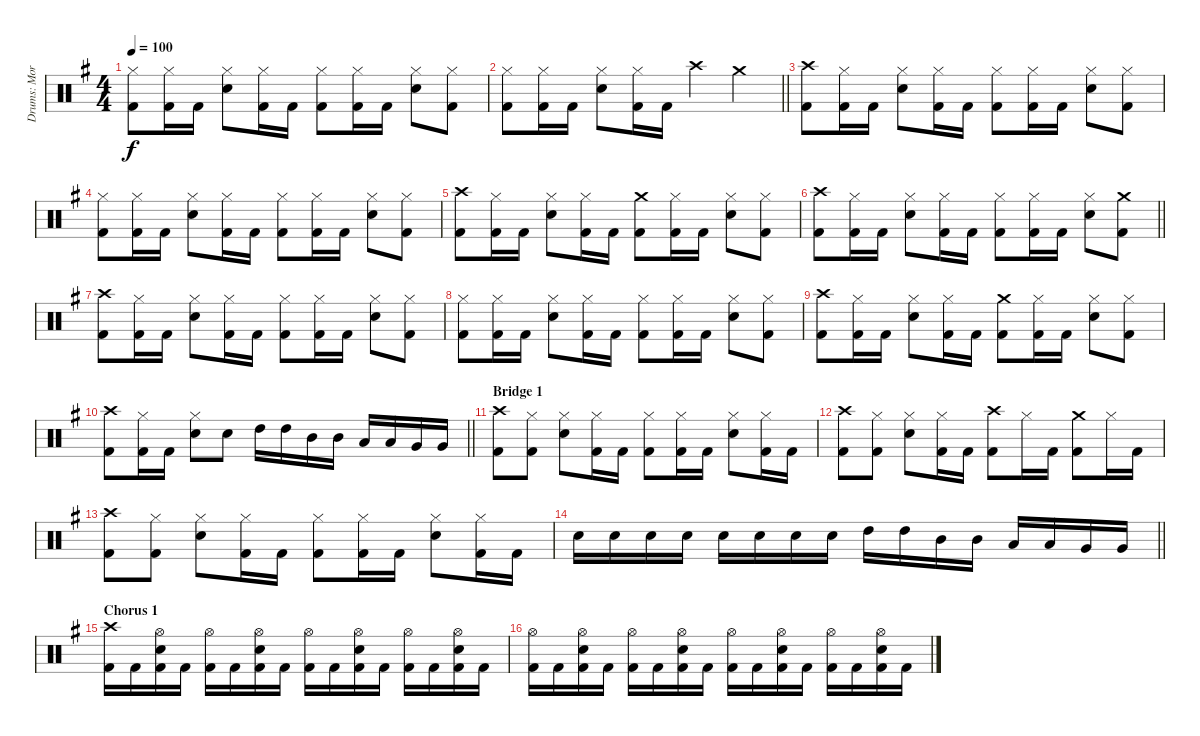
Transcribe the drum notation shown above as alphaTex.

\track ("Drums: Morten Færøvig" "Drums: Mor") {instrument percussion}
\staff {score}
\articulation defaults
\ts (4 4)
\tempo 100
\clef neutral
\ks eminor
("Hi-Hat (closed)" "Kick (hit) 2").8{dy f} ("Hi-Hat (closed)" "Kick (hit) 2").16 "Kick (hit) 2".16 ("Hi-Hat (closed)" "Electric Snare (hit)").8 ("Hi-Hat (closed)" "Kick (hit) 2").16 "Kick (hit) 2".16 ("Hi-Hat (closed)" "Kick (hit) 2").8 ("Hi-Hat (closed)" "Kick (hit) 2").16 "Kick (hit) 2".16 ("Hi-Hat (closed)" "Electric Snare (hit)").8 ("Hi-Hat (closed)" "Kick (hit) 2").8 |
\barLineRight lightlight
("Hi-Hat (closed)" "Kick (hit) 2").8 ("Hi-Hat (closed)" "Kick (hit) 2").16 "Kick (hit) 2".16 ("Hi-Hat (closed)" "Electric Snare (hit)").8 ("Hi-Hat (closed)" "Kick (hit) 2").16 "Kick (hit) 2".16 "Crash high (hit)".4 "Crash medium (hit)".4 |
("Crash high (hit)" "Kick (hit) 2").8 ("Hi-Hat (closed)" "Kick (hit) 2").16 "Kick (hit) 2".16 ("Hi-Hat (closed)" "Electric Snare (hit)").8 ("Hi-Hat (closed)" "Kick (hit) 2").16 "Kick (hit) 2".16 ("Hi-Hat (closed)" "Kick (hit) 2").8 ("Hi-Hat (closed)" "Kick (hit) 2").16 "Kick (hit) 2".16 ("Hi-Hat (closed)" "Electric Snare (hit)").8 ("Hi-Hat (closed)" "Kick (hit) 2").8 |
("Hi-Hat (closed)" "Kick (hit) 2").8 ("Hi-Hat (closed)" "Kick (hit) 2").16 "Kick (hit) 2".16 ("Hi-Hat (closed)" "Electric Snare (hit)").8 ("Hi-Hat (closed)" "Kick (hit) 2").16 "Kick (hit) 2".16 ("Hi-Hat (closed)" "Kick (hit) 2").8 ("Hi-Hat (closed)" "Kick (hit) 2").16 "Kick (hit) 2".16 ("Hi-Hat (closed)" "Electric Snare (hit)").8 ("Hi-Hat (closed)" "Kick (hit) 2").8 |
("Crash high (hit)" "Kick (hit) 2").8 ("Hi-Hat (closed)" "Kick (hit) 2").16 "Kick (hit) 2".16 ("Hi-Hat (closed)" "Electric Snare (hit)").8 ("Hi-Hat (closed)" "Kick (hit) 2").16 "Kick (hit) 2".16 ("Crash medium (hit)" "Kick (hit) 2").8 ("Hi-Hat (closed)" "Kick (hit) 2").16 "Kick (hit) 2".16 ("Hi-Hat (closed)" "Electric Snare (hit)").8 ("Hi-Hat (closed)" "Kick (hit) 2").8 |
\barLineRight lightlight
("Crash high (hit)" "Kick (hit) 2").8 ("Hi-Hat (closed)" "Kick (hit) 2").16 "Kick (hit) 2".16 ("Hi-Hat (closed)" "Electric Snare (hit)").8 ("Hi-Hat (closed)" "Kick (hit) 2").16 "Kick (hit) 2".16 ("Hi-Hat (closed)" "Kick (hit) 2").8 ("Hi-Hat (closed)" "Kick (hit) 2").16 "Kick (hit) 2".16 ("Hi-Hat (closed)" "Electric Snare (hit)").8 ("Crash medium (hit)" "Kick (hit) 2").8 |
("Crash high (hit)" "Kick (hit) 2").8 ("Hi-Hat (closed)" "Kick (hit) 2").16 "Kick (hit) 2".16 ("Hi-Hat (closed)" "Electric Snare (hit)").8 ("Hi-Hat (closed)" "Kick (hit) 2").16 "Kick (hit) 2".16 ("Hi-Hat (closed)" "Kick (hit) 2").8 ("Hi-Hat (closed)" "Kick (hit) 2").16 "Kick (hit) 2".16 ("Hi-Hat (closed)" "Electric Snare (hit)").8 ("Hi-Hat (closed)" "Kick (hit) 2").8 |
("Hi-Hat (closed)" "Kick (hit) 2").8 ("Hi-Hat (closed)" "Kick (hit) 2").16 "Kick (hit) 2".16 ("Hi-Hat (closed)" "Electric Snare (hit)").8 ("Hi-Hat (closed)" "Kick (hit) 2").16 "Kick (hit) 2".16 ("Hi-Hat (closed)" "Kick (hit) 2").8 ("Hi-Hat (closed)" "Kick (hit) 2").16 "Kick (hit) 2".16 ("Hi-Hat (closed)" "Electric Snare (hit)").8 ("Hi-Hat (closed)" "Kick (hit) 2").8 |
("Crash high (hit)" "Kick (hit) 2").8 ("Hi-Hat (closed)" "Kick (hit) 2").16 "Kick (hit) 2".16 ("Hi-Hat (closed)" "Electric Snare (hit)").8 ("Hi-Hat (closed)" "Kick (hit) 2").16 "Kick (hit) 2".16 ("Crash medium (hit)" "Kick (hit) 2").8 ("Hi-Hat (closed)" "Kick (hit) 2").16 "Kick (hit) 2".16 ("Hi-Hat (closed)" "Electric Snare (hit)").8 ("Hi-Hat (closed)" "Kick (hit) 2").8 |
\barLineRight lightlight
("Crash high (hit)" "Kick (hit) 2").8 ("Hi-Hat (closed)" "Kick (hit) 2").16 "Kick (hit) 2".16 ("Hi-Hat (closed)" "Electric Snare (hit)").8 "Electric Snare (hit)".8 "High Tom (hit)".16 "High Tom (hit)".16 "Mid Tom (hit)".16 "Mid Tom (hit)".16 "Low Tom (hit)".16 "Low Tom (hit)".16 "Very Low Tom (hit)".16 "Very Low Tom (hit)".16 |
\section ("" "Bridge 1")
("Crash high (hit)" "Kick (hit) 2").8 ("Hi-Hat (closed)" "Kick (hit) 2").8 ("Hi-Hat (closed)" "Electric Snare (hit)").8 ("Hi-Hat (closed)" "Kick (hit) 2").16 "Kick (hit) 2".16 ("Hi-Hat (closed)" "Kick (hit) 2").8 ("Hi-Hat (closed)" "Kick (hit) 2").16 "Kick (hit) 2".16 ("Hi-Hat (closed)" "Electric Snare (hit)").8 ("Hi-Hat (closed)" "Kick (hit) 2").16 "Kick (hit) 2".16 |
("Crash high (hit)" "Kick (hit) 2").8 ("Hi-Hat (closed)" "Kick (hit) 2").8 ("Hi-Hat (closed)" "Electric Snare (hit)").8 ("Hi-Hat (closed)" "Kick (hit) 2").16 "Kick (hit) 2".16 ("Crash high (hit)" "Kick (hit) 2").8 "Hi-Hat (closed)".16 "Kick (hit) 2".16 ("Crash medium (hit)" "Kick (hit) 2").8 "Hi-Hat (closed)".16 "Kick (hit) 2".16 |
("Crash high (hit)" "Kick (hit) 2").8 ("Hi-Hat (closed)" "Kick (hit) 2").8 ("Hi-Hat (closed)" "Electric Snare (hit)").8 ("Hi-Hat (closed)" "Kick (hit) 2").16 "Kick (hit) 2".16 ("Hi-Hat (closed)" "Kick (hit) 2").8 ("Hi-Hat (closed)" "Kick (hit) 2").16 "Kick (hit) 2".16 ("Hi-Hat (closed)" "Electric Snare (hit)").8 ("Hi-Hat (closed)" "Kick (hit) 2").16 "Kick (hit) 2".16 |
\barLineRight lightlight "Electric Snare (hit)".16 "Electric Snare (hit)".16 "Electric Snare (hit)".16 "Electric Snare (hit)".16 "Electric Snare (hit)".16 "Electric Snare (hit)".16 "Electric Snare (hit)".16 "Electric Snare (hit)".16 "High Tom (hit)".16 "High Tom (hit)".16 "Mid Tom (hit)".16 "Mid Tom (hit)".16 "Low Tom (hit)".16 "Low Tom (hit)".16 "Very Low Tom (hit)".16 "Very Low Tom (hit)".16
|
\section ("" "Chorus 1")
("Crash high (hit)" "Kick (hit) 2").16 "Kick (hit) 2".16 ("Hi-Hat (open)" "Electric Snare (hit)" "Kick (hit) 2").16 "Kick (hit) 2".16 ("Hi-Hat (open)" "Kick (hit) 2").16 "Kick (hit) 2".16 ("Hi-Hat (open)" "Electric Snare (hit)" "Kick (hit) 2").16 "Kick (hit) 2".16 ("Hi-Hat (open)" "Kick (hit) 2").16 "Kick (hit) 2".16 ("Hi-Hat (open)" "Electric Snare (hit)" "Kick (hit) 2").16 "Kick (hit) 2".16 ("Hi-Hat (open)" "Kick (hit) 2").16 "Kick (hit) 2".16 ("Hi-Hat (open)" "Electric Snare (hit)" "Kick (hit) 2").16 "Kick (hit) 2".16 |
("Hi-Hat (open)" "Kick (hit) 2").16 "Kick (hit) 2".16 ("Hi-Hat (open)" "Electric Snare (hit)" "Kick (hit) 2").16 "Kick (hit) 2".16 ("Hi-Hat (open)" "Kick (hit) 2").16 "Kick (hit) 2".16 ("Hi-Hat (open)" "Electric Snare (hit)" "Kick (hit) 2").16 "Kick (hit) 2".16 ("Hi-Hat (open)" "Kick (hit) 2").16 "Kick (hit) 2".16 ("Hi-Hat (open)" "Electric Snare (hit)" "Kick (hit) 2").16 "Kick (hit) 2".16 ("Hi-Hat (open)" "Kick (hit) 2").16 "Kick (hit) 2".16 ("Hi-Hat (open)" "Electric Snare (hit)" "Kick (hit) 2").16 "Kick (hit) 2".16
